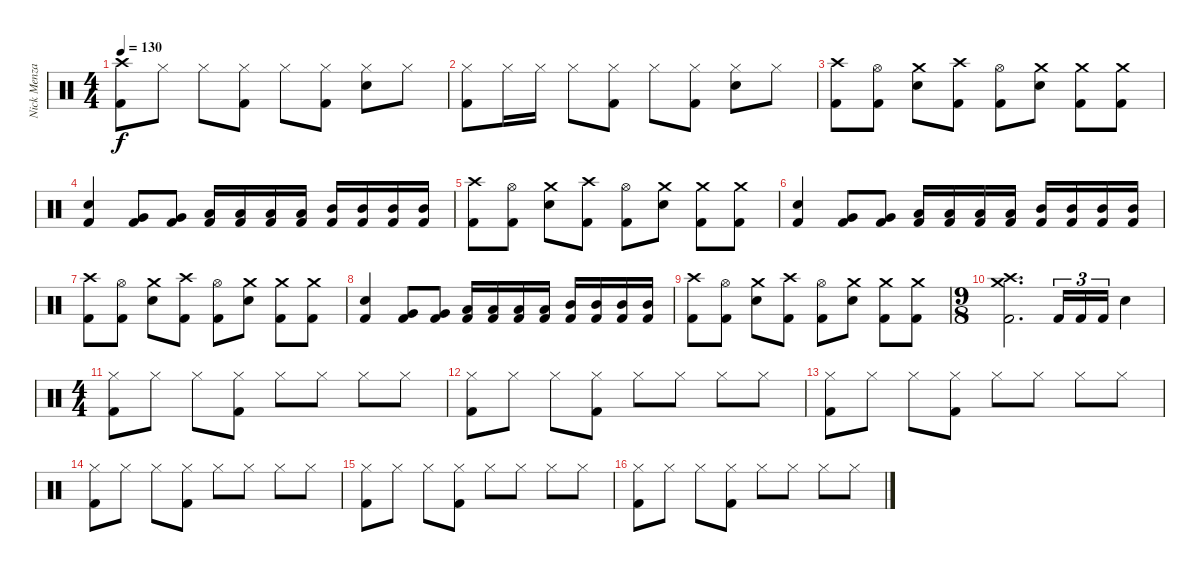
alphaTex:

\track ("Nick Menza" "Nick Menza") {instrument percussion}
\staff {score}
\articulation defaults
\ts (4 4)
\tempo 130
\clef neutral
\ks c
("Crash high (hit)" "Kick (hit) 2").8{dy f} "Hi-Hat (closed)".8 "Hi-Hat (closed)".8 ("Hi-Hat (closed)" "Kick (hit) 2").8 "Hi-Hat (closed)".8 ("Hi-Hat (closed)" "Kick (hit) 2").8 ("Hi-Hat (closed)" "Electric Snare (hit)").8 "Hi-Hat (closed)".8 |
("Hi-Hat (closed)" "Kick (hit) 2").8 "Hi-Hat (closed)".16 "Hi-Hat (closed)".16 "Hi-Hat (closed)".8 ("Hi-Hat (closed)" "Kick (hit) 2").8 "Hi-Hat (closed)".8 ("Hi-Hat (closed)" "Kick (hit) 2").8 ("Hi-Hat (closed)" "Electric Snare (hit)").8 "Hi-Hat (closed)".8 |
("Crash high (hit)" "Kick (hit) 2").8 ("Hi-Hat (open)" "Kick (hit) 2").8 ("Crash medium (hit)" "Electric Snare (hit)").8 ("Crash high (hit)" "Kick (hit) 2").8 ("Hi-Hat (open)" "Kick (hit) 2").8 ("Crash medium (hit)" "Electric Snare (hit)").8 ("Crash medium (hit)" "Kick (hit) 2").8 ("Crash medium (hit)" "Kick (hit) 2").8 |
("Electric Snare (hit)" "Kick (hit) 2").4 ("Very Low Tom (hit)" "Kick (hit) 2").8 ("Very Low Tom (hit)" "Kick (hit) 2").8 ("Low Tom (hit)" "Kick (hit) 2").16 ("Low Tom (hit)" "Kick (hit) 2").16 ("Low Tom (hit)" "Kick (hit) 2").16 ("Low Tom (hit)" "Kick (hit) 2").16 ("Mid Tom (hit)" "Kick (hit) 2").16 ("Mid Tom (hit)" "Kick (hit) 2").16 ("Mid Tom (hit)" "Kick (hit) 2").16 ("Mid Tom (hit)" "Kick (hit) 2").16 |
("Crash high (hit)" "Kick (hit) 2").8 ("Hi-Hat (open)" "Kick (hit) 2").8 ("Crash medium (hit)" "Electric Snare (hit)").8 ("Crash high (hit)" "Kick (hit) 2").8 ("Hi-Hat (open)" "Kick (hit) 2").8 ("Crash medium (hit)" "Electric Snare (hit)").8 ("Crash medium (hit)" "Kick (hit) 2").8 ("Crash medium (hit)" "Kick (hit) 2").8 |
("Electric Snare (hit)" "Kick (hit) 2").4 ("Very Low Tom (hit)" "Kick (hit) 2").8 ("Very Low Tom (hit)" "Kick (hit) 2").8 ("Low Tom (hit)" "Kick (hit) 2").16 ("Low Tom (hit)" "Kick (hit) 2").16 ("Low Tom (hit)" "Kick (hit) 2").16 ("Low Tom (hit)" "Kick (hit) 2").16 ("Mid Tom (hit)" "Kick (hit) 2").16 ("Mid Tom (hit)" "Kick (hit) 2").16 ("Mid Tom (hit)" "Kick (hit) 2").16 ("Mid Tom (hit)" "Kick (hit) 2").16 |
("Crash high (hit)" "Kick (hit) 2").8 ("Hi-Hat (open)" "Kick (hit) 2").8 ("Crash medium (hit)" "Electric Snare (hit)").8 ("Crash high (hit)" "Kick (hit) 2").8 ("Hi-Hat (open)" "Kick (hit) 2").8 ("Crash medium (hit)" "Electric Snare (hit)").8 ("Crash medium (hit)" "Kick (hit) 2").8 ("Crash medium (hit)" "Kick (hit) 2").8 |
("Electric Snare (hit)" "Kick (hit) 2").4 ("Very Low Tom (hit)" "Kick (hit) 2").8 ("Very Low Tom (hit)" "Kick (hit) 2").8 ("Low Tom (hit)" "Kick (hit) 2").16 ("Low Tom (hit)" "Kick (hit) 2").16 ("Low Tom (hit)" "Kick (hit) 2").16 ("Low Tom (hit)" "Kick (hit) 2").16 ("Mid Tom (hit)" "Kick (hit) 2").16 ("Mid Tom (hit)" "Kick (hit) 2").16 ("Mid Tom (hit)" "Kick (hit) 2").16 ("Mid Tom (hit)" "Kick (hit) 2").16 |
("Crash high (hit)" "Kick (hit) 2").8 ("Hi-Hat (open)" "Kick (hit) 2").8 ("Crash medium (hit)" "Electric Snare (hit)").8 ("Crash high (hit)" "Kick (hit) 2").8 ("Hi-Hat (open)" "Kick (hit) 2").8 ("Crash medium (hit)" "Electric Snare (hit)").8 ("Crash medium (hit)" "Kick (hit) 2").8 ("Crash medium (hit)" "Kick (hit) 2").8 |
\ts (9 8)
("Crash high (hit)" "Crash medium (hit)" "Kick (hit) 2").2{d} "Kick (hit) 2".16{tu (3 2)} "Kick (hit) 2".16{tu (3 2)} "Kick (hit) 2".16{tu (3 2)} "Electric Snare (hit)".4 |
\ts (4 4)
("Hi-Hat (closed)" "Kick (hit) 2").8 "Hi-Hat (closed)".8 "Hi-Hat (closed)".8 ("Hi-Hat (closed)" "Kick (hit) 2").8 "Hi-Hat (closed)".8 "Hi-Hat (closed)".8 "Hi-Hat (closed)".8 "Hi-Hat (closed)".8 |
("Hi-Hat (closed)" "Kick (hit) 2").8 "Hi-Hat (closed)".8 "Hi-Hat (closed)".8 ("Hi-Hat (closed)" "Kick (hit) 2").8 "Hi-Hat (closed)".8 "Hi-Hat (closed)".8 "Hi-Hat (closed)".8 "Hi-Hat (closed)".8 |
("Hi-Hat (closed)" "Kick (hit) 2").8 "Hi-Hat (closed)".8 "Hi-Hat (closed)".8 ("Hi-Hat (closed)" "Kick (hit) 2").8 "Hi-Hat (closed)".8 "Hi-Hat (closed)".8 "Hi-Hat (closed)".8 "Hi-Hat (closed)".8 |
("Hi-Hat (closed)" "Kick (hit) 2").8 "Hi-Hat (closed)".8 "Hi-Hat (closed)".8 ("Hi-Hat (closed)" "Kick (hit) 2").8 "Hi-Hat (closed)".8 "Hi-Hat (closed)".8 "Hi-Hat (closed)".8 "Hi-Hat (closed)".8 |
("Hi-Hat (closed)" "Kick (hit) 2").8 "Hi-Hat (closed)".8 "Hi-Hat (closed)".8 ("Hi-Hat (closed)" "Kick (hit) 2").8 "Hi-Hat (closed)".8 "Hi-Hat (closed)".8 "Hi-Hat (closed)".8 "Hi-Hat (closed)".8 |
("Hi-Hat (closed)" "Kick (hit) 2").8 "Hi-Hat (closed)".8 "Hi-Hat (closed)".8 ("Hi-Hat (closed)" "Kick (hit) 2").8 "Hi-Hat (closed)".8 "Hi-Hat (closed)".8 "Hi-Hat (closed)".8 "Hi-Hat (closed)".8
